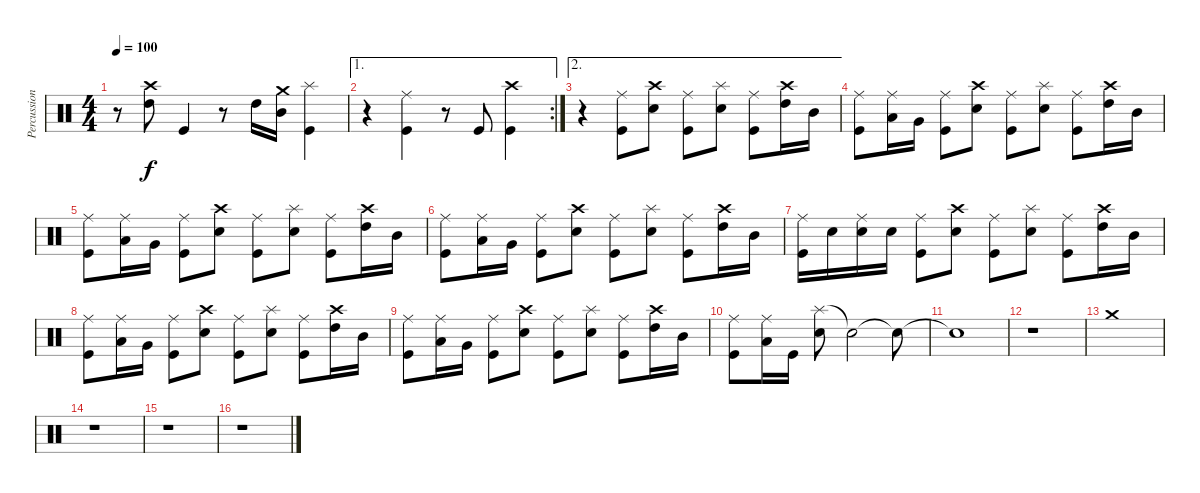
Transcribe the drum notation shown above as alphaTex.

\track ("Percussions" "Percussion") {instrument percussion}
\staff {score}
\articulation defaults
\ts (4 4)
\tempo 100
\clef neutral
\ks c
r.8{dy f} ("Crash high (hit)" "High Tom (hit)").8 "Kick (hit)".4 r.8 "High Tom (hit)".16 ("Crash medium (hit)" "Mid Tom (hit)").16 ("Splash (hit)" "Kick (hit)").4 |
\ae 1
\rc 2
r.4 ("Ride (middle)" "Kick (hit)").4 r.8 "Kick (hit)".8 ("Crash high (hit)" "Kick (hit)").4 |
\ae 2
r.4 ("Ride (middle)" "Kick (hit)").8 ("Crash high (hit)" "Snare (hit) 2").8 ("Ride (middle)" "Kick (hit)").8 ("Splash (hit)" "Snare (hit) 2").8 ("Ride (middle)" "Kick (hit)").8 ("Crash high (hit)" "High Tom (hit)").16 "Mid Tom (hit)".16 |
("Ride (middle)" "Kick (hit)").8 ("Ride (middle)" "Low Tom (hit)").16 "Very Low Tom (hit)".16 ("Ride (middle)" "Kick (hit)").8 ("Crash high (hit)" "Snare (hit) 2").8 ("Ride (middle)" "Kick (hit)").8 ("Splash (hit)" "Snare (hit) 2").8 ("Ride (middle)" "Kick (hit)").8 ("Crash high (hit)" "High Tom (hit)").16 "Mid Tom (hit)".16 |
("Ride (middle)" "Kick (hit)").8 ("Ride (middle)" "Low Tom (hit)").16 "Very Low Tom (hit)".16 ("Ride (middle)" "Kick (hit)").8 ("Crash high (hit)" "Snare (hit) 2").8 ("Ride (middle)" "Kick (hit)").8 ("Splash (hit)" "Snare (hit) 2").8 ("Ride (middle)" "Kick (hit)").8 ("Crash high (hit)" "High Tom (hit)").16 "Mid Tom (hit)".16 |
("Ride (middle)" "Kick (hit)").8 ("Ride (middle)" "Low Tom (hit)").16 "Very Low Tom (hit)".16 ("Ride (middle)" "Kick (hit)").8 ("Crash high (hit)" "Snare (hit) 2").8 ("Ride (middle)" "Kick (hit)").8 ("Splash (hit)" "Snare (hit) 2").8 ("Ride (middle)" "Kick (hit)").8 ("Crash high (hit)" "High Tom (hit)").16 "Mid Tom (hit)".16 |
("Ride (middle)" "Kick (hit)").16 "Snare (hit) 2".16 ("Ride (middle)" "Snare (hit) 2").16 "Snare (hit) 2".16 ("Ride (middle)" "Kick (hit)").8 ("Crash high (hit)" "Snare (hit) 2").8 ("Ride (middle)" "Kick (hit)").8 ("Splash (hit)" "Snare (hit) 2").8 ("Ride (middle)" "Kick (hit)").8 ("Crash high (hit)" "High Tom (hit)").16 "Mid Tom (hit)".16 |
("Ride (middle)" "Kick (hit)").8 ("Ride (middle)" "Low Tom (hit)").16 "Very Low Tom (hit)".16 ("Ride (middle)" "Kick (hit)").8 ("Crash high (hit)" "Snare (hit) 2").8 ("Ride (middle)" "Kick (hit)").8 ("Splash (hit)" "Snare (hit) 2").8 ("Ride (middle)" "Kick (hit)").8 ("Crash high (hit)" "High Tom (hit)").16 "Mid Tom (hit)".16 |
("Ride (middle)" "Kick (hit)").8 ("Ride (middle)" "Low Tom (hit)").16 "Very Low Tom (hit)".16 ("Ride (middle)" "Kick (hit)").8 ("Crash high (hit)" "Snare (hit) 2").8 ("Ride (middle)" "Kick (hit)").8 ("Splash (hit)" "Snare (hit) 2").8 ("Ride (middle)" "Kick (hit)").8 ("Crash high (hit)" "High Tom (hit)").16 "Mid Tom (hit)".16 |
("Ride (middle)" "Kick (hit)").8 ("Ride (middle)" "Low Tom (hit)").16 "Kick (hit)".16 ("Splash (hit)" "Snare (hit) 2").8 "Snare (hit)"{t}.2 "Snare (hit)"{t}.8 |
"Snare (hit)"{t}.1 |
r.1 |
"Crash medium (hit)".1 |
r.1 |
r.1 |
r.1
